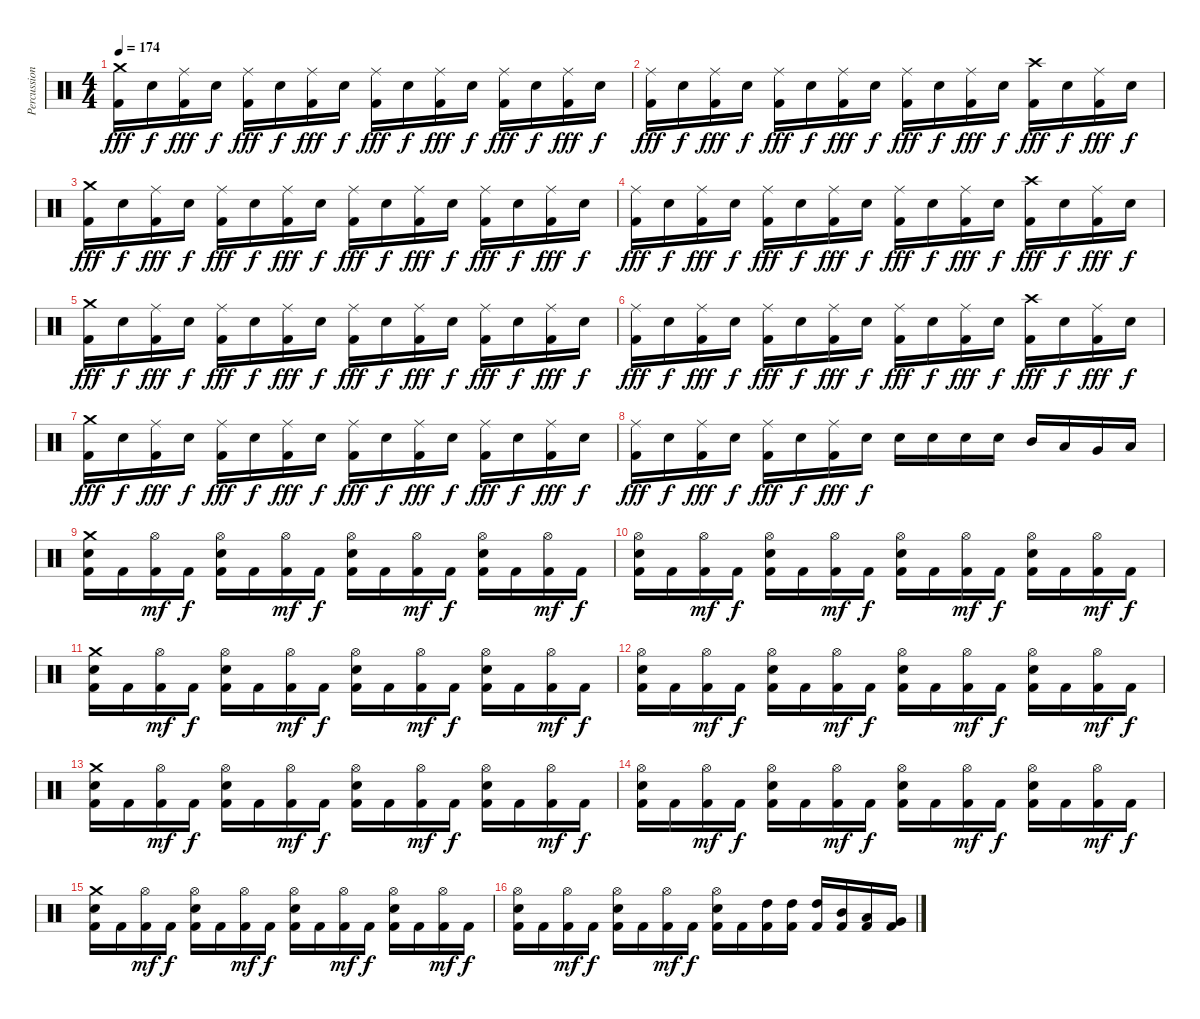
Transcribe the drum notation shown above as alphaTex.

\track ("Percussion" "Percussion") {instrument percussion}
\staff {score}
\articulation defaults
\ts (4 4)
\tempo 174
\clef neutral
\ks c
("Crash medium (hit)" "Kick (hit) 2").16{dy fff} "Electric Snare (hit)".16{dy f} ("Ride (middle)" "Kick (hit) 2").16{dy fff} "Electric Snare (hit)".16{dy f} ("Ride (middle)" "Kick (hit) 2").16{dy fff} "Electric Snare (hit)".16{dy f} ("Ride (middle)" "Kick (hit) 2").16{dy fff} "Electric Snare (hit)".16{dy f} ("Ride (middle)" "Kick (hit) 2").16{dy fff} "Electric Snare (hit)".16{dy f} ("Ride (middle)" "Kick (hit) 2").16{dy fff} "Electric Snare (hit)".16{dy f} ("Ride (middle)" "Kick (hit) 2").16{dy fff} "Electric Snare (hit)".16{dy f} ("Ride (middle)" "Kick (hit) 2").16{dy fff} "Electric Snare (hit)".16{dy f} |
("Ride (middle)" "Kick (hit) 2").16{dy fff} "Electric Snare (hit)".16{dy f} ("Ride (middle)" "Kick (hit) 2").16{dy fff} "Electric Snare (hit)".16{dy f} ("Ride (middle)" "Kick (hit) 2").16{dy fff} "Electric Snare (hit)".16{dy f} ("Ride (middle)" "Kick (hit) 2").16{dy fff} "Electric Snare (hit)".16{dy f} ("Ride (middle)" "Kick (hit) 2").16{dy fff} "Electric Snare (hit)".16{dy f} ("Ride (middle)" "Kick (hit) 2").16{dy fff} "Electric Snare (hit)".16{dy f} ("Crash high (hit)" "Kick (hit) 2").16{dy fff} "Electric Snare (hit)".16{dy f} ("Ride (middle)" "Kick (hit) 2").16{dy fff} "Electric Snare (hit)".16{dy f} |
("Crash medium (hit)" "Kick (hit) 2").16{dy fff} "Electric Snare (hit)".16{dy f} ("Ride (middle)" "Kick (hit) 2").16{dy fff} "Electric Snare (hit)".16{dy f} ("Ride (middle)" "Kick (hit) 2").16{dy fff} "Electric Snare (hit)".16{dy f} ("Ride (middle)" "Kick (hit) 2").16{dy fff} "Electric Snare (hit)".16{dy f} ("Ride (middle)" "Kick (hit) 2").16{dy fff} "Electric Snare (hit)".16{dy f} ("Ride (middle)" "Kick (hit) 2").16{dy fff} "Electric Snare (hit)".16{dy f} ("Ride (middle)" "Kick (hit) 2").16{dy fff} "Electric Snare (hit)".16{dy f} ("Ride (middle)" "Kick (hit) 2").16{dy fff} "Electric Snare (hit)".16{dy f} |
("Ride (middle)" "Kick (hit) 2").16{dy fff} "Electric Snare (hit)".16{dy f} ("Ride (middle)" "Kick (hit) 2").16{dy fff} "Electric Snare (hit)".16{dy f} ("Ride (middle)" "Kick (hit) 2").16{dy fff} "Electric Snare (hit)".16{dy f} ("Ride (middle)" "Kick (hit) 2").16{dy fff} "Electric Snare (hit)".16{dy f} ("Ride (middle)" "Kick (hit) 2").16{dy fff} "Electric Snare (hit)".16{dy f} ("Ride (middle)" "Kick (hit) 2").16{dy fff} "Electric Snare (hit)".16{dy f} ("Crash high (hit)" "Kick (hit) 2").16{dy fff} "Electric Snare (hit)".16{dy f} ("Ride (middle)" "Kick (hit) 2").16{dy fff} "Electric Snare (hit)".16{dy f} |
("Crash medium (hit)" "Kick (hit) 2").16{dy fff} "Electric Snare (hit)".16{dy f} ("Ride (middle)" "Kick (hit) 2").16{dy fff} "Electric Snare (hit)".16{dy f} ("Ride (middle)" "Kick (hit) 2").16{dy fff} "Electric Snare (hit)".16{dy f} ("Ride (middle)" "Kick (hit) 2").16{dy fff} "Electric Snare (hit)".16{dy f} ("Ride (middle)" "Kick (hit) 2").16{dy fff} "Electric Snare (hit)".16{dy f} ("Ride (middle)" "Kick (hit) 2").16{dy fff} "Electric Snare (hit)".16{dy f} ("Ride (middle)" "Kick (hit) 2").16{dy fff} "Electric Snare (hit)".16{dy f} ("Ride (middle)" "Kick (hit) 2").16{dy fff} "Electric Snare (hit)".16{dy f} |
("Ride (middle)" "Kick (hit) 2").16{dy fff} "Electric Snare (hit)".16{dy f} ("Ride (middle)" "Kick (hit) 2").16{dy fff} "Electric Snare (hit)".16{dy f} ("Ride (middle)" "Kick (hit) 2").16{dy fff} "Electric Snare (hit)".16{dy f} ("Ride (middle)" "Kick (hit) 2").16{dy fff} "Electric Snare (hit)".16{dy f} ("Ride (middle)" "Kick (hit) 2").16{dy fff} "Electric Snare (hit)".16{dy f} ("Ride (middle)" "Kick (hit) 2").16{dy fff} "Electric Snare (hit)".16{dy f} ("Crash high (hit)" "Kick (hit) 2").16{dy fff} "Electric Snare (hit)".16{dy f} ("Ride (middle)" "Kick (hit) 2").16{dy fff} "Electric Snare (hit)".16{dy f} |
("Crash medium (hit)" "Kick (hit) 2").16{dy fff} "Electric Snare (hit)".16{dy f} ("Ride (middle)" "Kick (hit) 2").16{dy fff} "Electric Snare (hit)".16{dy f} ("Ride (middle)" "Kick (hit) 2").16{dy fff} "Electric Snare (hit)".16{dy f} ("Ride (middle)" "Kick (hit) 2").16{dy fff} "Electric Snare (hit)".16{dy f} ("Ride (middle)" "Kick (hit) 2").16{dy fff} "Electric Snare (hit)".16{dy f} ("Ride (middle)" "Kick (hit) 2").16{dy fff} "Electric Snare (hit)".16{dy f} ("Ride (middle)" "Kick (hit) 2").16{dy fff} "Electric Snare (hit)".16{dy f} ("Ride (middle)" "Kick (hit) 2").16{dy fff} "Electric Snare (hit)".16{dy f} |
("Ride (middle)" "Kick (hit) 2").16{dy fff} "Electric Snare (hit)".16{dy f} ("Ride (middle)" "Kick (hit) 2").16{dy fff} "Electric Snare (hit)".16{dy f} ("Ride (middle)" "Kick (hit) 2").16{dy fff} "Electric Snare (hit)".16{dy f} ("Ride (middle)" "Kick (hit) 2").16{dy fff} "Electric Snare (hit)".16{dy f} "Electric Snare (hit)".16 "Electric Snare (hit)".16 "Electric Snare (hit)".16 "Electric Snare (hit)".16 "Mid Tom (hit)".16 "Low Tom (hit)".16 "Very Low Tom (hit)".16 "Low Floor Tom (hit)".16 |
("Crash medium (hit)" "Electric Snare (hit)" "Kick (hit) 2").16 "Kick (hit) 2".16 ("Hi-Hat (open)" "Kick (hit) 2").16{dy mf} "Kick (hit) 2".16{dy f} ("Hi-Hat (open)" "Electric Snare (hit)" "Kick (hit) 2").16 "Kick (hit) 2".16 ("Hi-Hat (open)" "Kick (hit) 2").16{dy mf} "Kick (hit) 2".16{dy f} ("Hi-Hat (open)" "Electric Snare (hit)" "Kick (hit) 2").16 "Kick (hit) 2".16 ("Hi-Hat (open)" "Kick (hit) 2").16{dy mf} "Kick (hit) 2".16{dy f} ("Hi-Hat (open)" "Electric Snare (hit)" "Kick (hit) 2").16 "Kick (hit) 2".16 ("Hi-Hat (open)" "Kick (hit) 2").16{dy mf} "Kick (hit) 2".16{dy f} |
("Hi-Hat (open)" "Electric Snare (hit)" "Kick (hit) 2").16 "Kick (hit) 2".16 ("Hi-Hat (open)" "Kick (hit) 2").16{dy mf} "Kick (hit) 2".16{dy f} ("Hi-Hat (open)" "Electric Snare (hit)" "Kick (hit) 2").16 "Kick (hit) 2".16 ("Hi-Hat (open)" "Kick (hit) 2").16{dy mf} "Kick (hit) 2".16{dy f} ("Hi-Hat (open)" "Electric Snare (hit)" "Kick (hit) 2").16 "Kick (hit) 2".16 ("Hi-Hat (open)" "Kick (hit) 2").16{dy mf} "Kick (hit) 2".16{dy f} ("Hi-Hat (open)" "Electric Snare (hit)" "Kick (hit) 2").16 "Kick (hit) 2".16 ("Hi-Hat (open)" "Kick (hit) 2").16{dy mf} "Kick (hit) 2".16{dy f} |
("Crash medium (hit)" "Electric Snare (hit)" "Kick (hit) 2").16 "Kick (hit) 2".16 ("Hi-Hat (open)" "Kick (hit) 2").16{dy mf} "Kick (hit) 2".16{dy f} ("Hi-Hat (open)" "Electric Snare (hit)" "Kick (hit) 2").16 "Kick (hit) 2".16 ("Hi-Hat (open)" "Kick (hit) 2").16{dy mf} "Kick (hit) 2".16{dy f} ("Hi-Hat (open)" "Electric Snare (hit)" "Kick (hit) 2").16 "Kick (hit) 2".16 ("Hi-Hat (open)" "Kick (hit) 2").16{dy mf} "Kick (hit) 2".16{dy f} ("Hi-Hat (open)" "Electric Snare (hit)" "Kick (hit) 2").16 "Kick (hit) 2".16 ("Hi-Hat (open)" "Kick (hit) 2").16{dy mf} "Kick (hit) 2".16{dy f} |
("Hi-Hat (open)" "Electric Snare (hit)" "Kick (hit) 2").16 "Kick (hit) 2".16 ("Hi-Hat (open)" "Kick (hit) 2").16{dy mf} "Kick (hit) 2".16{dy f} ("Hi-Hat (open)" "Electric Snare (hit)" "Kick (hit) 2").16 "Kick (hit) 2".16 ("Hi-Hat (open)" "Kick (hit) 2").16{dy mf} "Kick (hit) 2".16{dy f} ("Hi-Hat (open)" "Electric Snare (hit)" "Kick (hit) 2").16 "Kick (hit) 2".16 ("Hi-Hat (open)" "Kick (hit) 2").16{dy mf} "Kick (hit) 2".16{dy f} ("Hi-Hat (open)" "Electric Snare (hit)" "Kick (hit) 2").16 "Kick (hit) 2".16 ("Hi-Hat (open)" "Kick (hit) 2").16{dy mf} "Kick (hit) 2".16{dy f} |
("Crash medium (hit)" "Electric Snare (hit)" "Kick (hit) 2").16 "Kick (hit) 2".16 ("Hi-Hat (open)" "Kick (hit) 2").16{dy mf} "Kick (hit) 2".16{dy f} ("Hi-Hat (open)" "Electric Snare (hit)" "Kick (hit) 2").16 "Kick (hit) 2".16 ("Hi-Hat (open)" "Kick (hit) 2").16{dy mf} "Kick (hit) 2".16{dy f} ("Hi-Hat (open)" "Electric Snare (hit)" "Kick (hit) 2").16 "Kick (hit) 2".16 ("Hi-Hat (open)" "Kick (hit) 2").16{dy mf} "Kick (hit) 2".16{dy f} ("Hi-Hat (open)" "Electric Snare (hit)" "Kick (hit) 2").16 "Kick (hit) 2".16 ("Hi-Hat (open)" "Kick (hit) 2").16{dy mf} "Kick (hit) 2".16{dy f} |
("Hi-Hat (open)" "Electric Snare (hit)" "Kick (hit) 2").16 "Kick (hit) 2".16 ("Hi-Hat (open)" "Kick (hit) 2").16{dy mf} "Kick (hit) 2".16{dy f} ("Hi-Hat (open)" "Electric Snare (hit)" "Kick (hit) 2").16 "Kick (hit) 2".16 ("Hi-Hat (open)" "Kick (hit) 2").16{dy mf} "Kick (hit) 2".16{dy f} ("Hi-Hat (open)" "Electric Snare (hit)" "Kick (hit) 2").16 "Kick (hit) 2".16 ("Hi-Hat (open)" "Kick (hit) 2").16{dy mf} "Kick (hit) 2".16{dy f} ("Hi-Hat (open)" "Electric Snare (hit)" "Kick (hit) 2").16 "Kick (hit) 2".16 ("Hi-Hat (open)" "Kick (hit) 2").16{dy mf} "Kick (hit) 2".16{dy f} |
("Crash medium (hit)" "Electric Snare (hit)" "Kick (hit) 2").16 "Kick (hit) 2".16 ("Hi-Hat (open)" "Kick (hit) 2").16{dy mf} "Kick (hit) 2".16{dy f} ("Hi-Hat (open)" "Electric Snare (hit)" "Kick (hit) 2").16 "Kick (hit) 2".16 ("Hi-Hat (open)" "Kick (hit) 2").16{dy mf} "Kick (hit) 2".16{dy f} ("Hi-Hat (open)" "Electric Snare (hit)" "Kick (hit) 2").16 "Kick (hit) 2".16 ("Hi-Hat (open)" "Kick (hit) 2").16{dy mf} "Kick (hit) 2".16{dy f} ("Hi-Hat (open)" "Electric Snare (hit)" "Kick (hit) 2").16 "Kick (hit) 2".16 ("Hi-Hat (open)" "Kick (hit) 2").16{dy mf} "Kick (hit) 2".16{dy f} |
("Hi-Hat (open)" "Electric Snare (hit)" "Kick (hit) 2").16 "Kick (hit) 2".16 ("Hi-Hat (open)" "Kick (hit) 2").16{dy mf} "Kick (hit) 2".16{dy f} ("Hi-Hat (open)" "Electric Snare (hit)" "Kick (hit) 2").16 "Kick (hit) 2".16 ("Hi-Hat (open)" "Kick (hit) 2").16{dy mf} "Kick (hit) 2".16{dy f} ("Hi-Hat (open)" "Electric Snare (hit)" "Kick (hit) 2").16 "Kick (hit) 2".16 ("High Tom (hit)" "Kick (hit) 2").16 ("High Tom (hit)" "Kick (hit) 2").16 ("High Tom (hit)" "Kick (hit) 2").16 ("Mid Tom (hit)" "Kick (hit) 2").16 ("Low Tom (hit)" "Kick (hit) 2").16 ("Very Low Tom (hit)" "Kick (hit) 2").16
